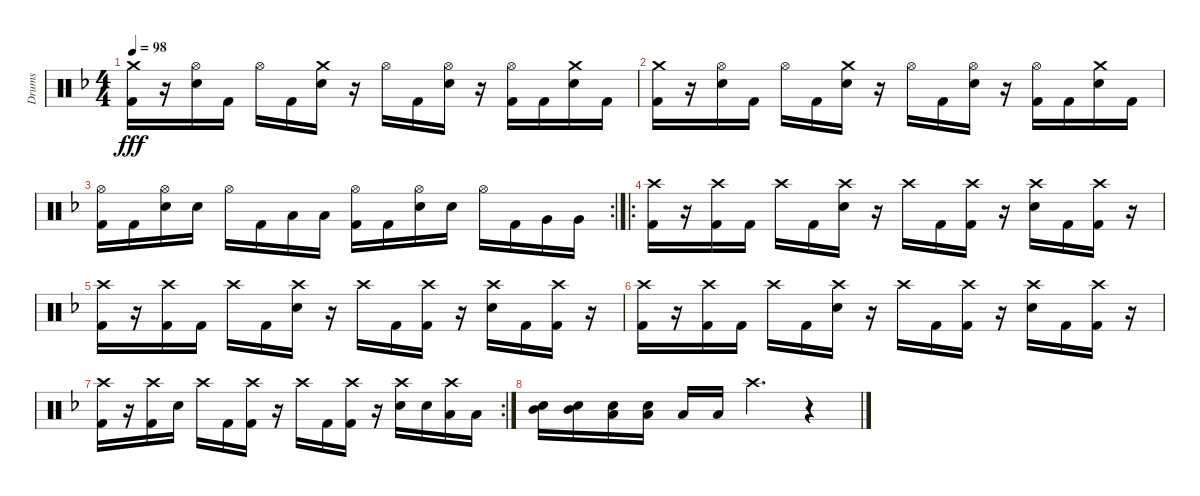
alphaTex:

\track ("Drums" "Drums") {instrument percussion}
\staff {score}
\articulation defaults
\ts (4 4)
\tempo 98
\clef neutral
\ks f
("Crash medium (hit)" "Kick (hit) 2").16{dy fff} r.16 ("Hi-Hat (open)" "Snare (hit) 2").16 "Kick (hit) 2".16 "Hi-Hat (open)".16 "Kick (hit) 2".16 ("Crash medium (hit)" "Snare (hit) 2").16 r.16 "Hi-Hat (open)".16 "Kick (hit) 2".16 ("Hi-Hat (open)" "Snare (hit) 2").16 r.16 ("Hi-Hat (open)" "Kick (hit) 2").16 "Kick (hit) 2".16 ("Crash medium (hit)" "Snare (hit) 2").16 "Kick (hit) 2".16 |
("Crash medium (hit)" "Kick (hit) 2").16 r.16 ("Hi-Hat (open)" "Snare (hit) 2").16 "Kick (hit) 2".16 "Hi-Hat (open)".16 "Kick (hit) 2".16 ("Crash medium (hit)" "Snare (hit) 2").16 r.16 "Hi-Hat (open)".16 "Kick (hit) 2".16 ("Hi-Hat (open)" "Snare (hit) 2").16 r.16 ("Hi-Hat (open)" "Kick (hit) 2").16 "Kick (hit) 2".16 ("Crash medium (hit)" "Snare (hit) 2").16 "Kick (hit) 2".16 |
\rc 2
("Hi-Hat (open)" "Kick (hit) 2").16 "Kick (hit) 2".16 ("Hi-Hat (open)" "Snare (hit) 2").16 "Snare (hit) 2".16 "Hi-Hat (open)".16 "Kick (hit) 2".16 "Low Tom (hit)".16 "Low Tom (hit)".16 ("Hi-Hat (open)" "Kick (hit) 2").16 "Kick (hit) 2".16 ("Hi-Hat (open)" "Snare (hit) 2").16 "Snare (hit) 2".16 "Hi-Hat (open)".16 "Kick (hit) 2".16 "Very Low Tom (hit)".16 "Very Low Tom (hit)".16 |
\ro
("Crash high (hit)" "Kick (hit) 2").16 r.16 ("Crash high (hit)" "Kick (hit) 2").16 "Kick (hit) 2".16 "Crash high (hit)".16 "Kick (hit) 2".16 ("Crash high (hit)" "Snare (hit) 2").16 r.16 "Crash high (hit)".16 "Kick (hit) 2".16 ("Crash high (hit)" "Kick (hit) 2").16 r.16 ("Crash high (hit)" "Snare (hit) 2").16 "Kick (hit) 2".16 ("Crash high (hit)" "Kick (hit) 2").16 r.16 |
("Crash high (hit)" "Kick (hit) 2").16 r.16 ("Crash high (hit)" "Kick (hit) 2").16 "Kick (hit) 2".16 "Crash high (hit)".16 "Kick (hit) 2".16 ("Crash high (hit)" "Snare (hit) 2").16 r.16 "Crash high (hit)".16 "Kick (hit) 2".16 ("Crash high (hit)" "Kick (hit) 2").16 r.16 ("Crash high (hit)" "Snare (hit) 2").16 "Kick (hit) 2".16 ("Crash high (hit)" "Kick (hit) 2").16 r.16 |
("Crash high (hit)" "Kick (hit) 2").16 r.16 ("Crash high (hit)" "Kick (hit) 2").16 "Kick (hit) 2".16 "Crash high (hit)".16 "Kick (hit) 2".16 ("Crash high (hit)" "Snare (hit) 2").16 r.16 "Crash high (hit)".16 "Kick (hit) 2".16 ("Crash high (hit)" "Kick (hit) 2").16 r.16 ("Crash high (hit)" "Snare (hit) 2").16 "Kick (hit) 2".16 ("Crash high (hit)" "Kick (hit) 2").16 r.16 |
\rc 2
("Crash high (hit)" "Kick (hit) 2").16 r.16 ("Crash high (hit)" "Kick (hit) 2").16 "Snare (hit) 2".16 "Crash high (hit)".16 "Kick (hit) 2".16 ("Crash high (hit)" "Kick (hit) 2").16 r.16 "Crash high (hit)".16 "Kick (hit) 2".16 ("Crash high (hit)" "Kick (hit) 2").16 r.16 ("Crash high (hit)" "Snare (hit) 2").16 "Snare (hit) 2".16 ("Crash high (hit)" "Low Tom (hit)").16 "Low Tom (hit)".16 |
("Mid Tom (hit)" "Snare (hit) 2").16 ("Mid Tom (hit)" "Snare (hit) 2").16 ("Low Tom (hit)" "Snare (hit) 2").16 ("Low Tom (hit)" "Snare (hit) 2").16 "Low Floor Tom (hit)".16 "Low Floor Tom (hit)".16 "Crash high (hit)".4{d} r.4
